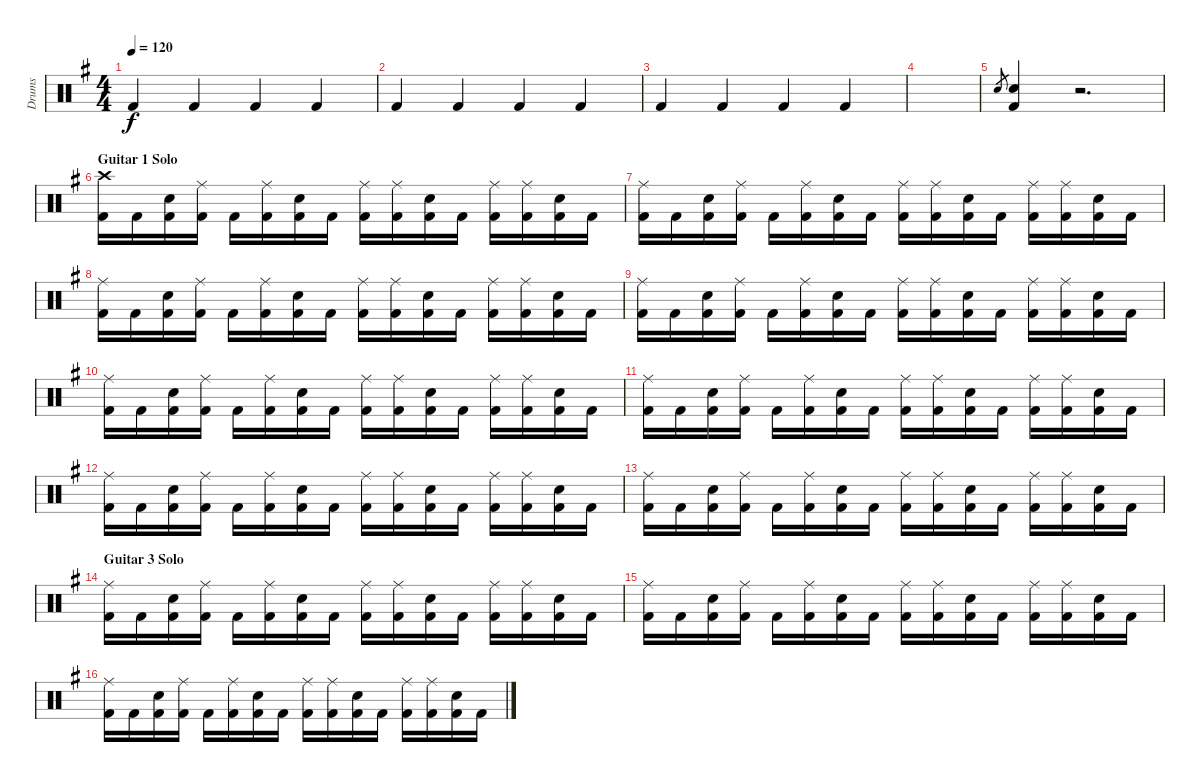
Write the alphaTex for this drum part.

\track ("Drums" "Drums") {instrument percussion}
\staff {score}
\articulation defaults
\ts (4 4)
\tempo 120
\clef neutral
\ks eminor "Kick (hit) 2".4{dy f} "Kick (hit) 2".4 "Kick (hit) 2".4 "Kick (hit) 2".4
|
"Kick (hit) 2".4 "Kick (hit) 2".4 "Kick (hit) 2".4 "Kick (hit) 2".4 |
"Kick (hit) 2".4 "Kick (hit) 2".4 "Kick (hit) 2".4 "Kick (hit) 2".4 |
|
"Snare (hit) 2".8{gr} ("Snare (hit) 2" "Kick (hit) 2").4 r.2{d} |
\section ("" "Guitar 1 Solo")
("Crash high (hit)" "Kick (hit) 2").16 "Kick (hit) 2".16 ("Snare (hit) 2" "Kick (hit) 2").16 ("Ride (middle)" "Kick (hit) 2").16 "Kick (hit) 2".16 ("Ride (middle)" "Kick (hit) 2").16 ("Snare (hit) 2" "Kick (hit) 2").16 "Kick (hit) 2".16 ("Ride (middle)" "Kick (hit) 2").16 ("Ride (middle)" "Kick (hit) 2").16 ("Snare (hit) 2" "Kick (hit) 2").16 "Kick (hit) 2".16 ("Ride (middle)" "Kick (hit) 2").16 ("Ride (middle)" "Kick (hit) 2").16 ("Snare (hit) 2" "Kick (hit) 2").16 "Kick (hit) 2".16 |
("Ride (middle)" "Kick (hit) 2").16 "Kick (hit) 2".16 ("Snare (hit) 2" "Kick (hit) 2").16 ("Ride (middle)" "Kick (hit) 2").16 "Kick (hit) 2".16 ("Ride (middle)" "Kick (hit) 2").16 ("Snare (hit) 2" "Kick (hit) 2").16 "Kick (hit) 2".16 ("Ride (middle)" "Kick (hit) 2").16 ("Ride (middle)" "Kick (hit) 2").16 ("Snare (hit) 2" "Kick (hit) 2").16 "Kick (hit) 2".16 ("Ride (middle)" "Kick (hit) 2").16 ("Ride (middle)" "Kick (hit) 2").16 ("Snare (hit) 2" "Kick (hit) 2").16 "Kick (hit) 2".16 |
("Ride (middle)" "Kick (hit) 2").16 "Kick (hit) 2".16 ("Snare (hit) 2" "Kick (hit) 2").16 ("Ride (middle)" "Kick (hit) 2").16 "Kick (hit) 2".16 ("Ride (middle)" "Kick (hit) 2").16 ("Snare (hit) 2" "Kick (hit) 2").16 "Kick (hit) 2".16 ("Ride (middle)" "Kick (hit) 2").16 ("Ride (middle)" "Kick (hit) 2").16 ("Snare (hit) 2" "Kick (hit) 2").16 "Kick (hit) 2".16 ("Ride (middle)" "Kick (hit) 2").16 ("Ride (middle)" "Kick (hit) 2").16 ("Snare (hit) 2" "Kick (hit) 2").16 "Kick (hit) 2".16 |
("Ride (middle)" "Kick (hit) 2").16 "Kick (hit) 2".16 ("Snare (hit) 2" "Kick (hit) 2").16 ("Ride (middle)" "Kick (hit) 2").16 "Kick (hit) 2".16 ("Ride (middle)" "Kick (hit) 2").16 ("Snare (hit) 2" "Kick (hit) 2").16 "Kick (hit) 2".16 ("Ride (middle)" "Kick (hit) 2").16 ("Ride (middle)" "Kick (hit) 2").16 ("Snare (hit) 2" "Kick (hit) 2").16 "Kick (hit) 2".16 ("Ride (middle)" "Kick (hit) 2").16 ("Ride (middle)" "Kick (hit) 2").16 ("Snare (hit) 2" "Kick (hit) 2").16 "Kick (hit) 2".16 |
("Ride (middle)" "Kick (hit) 2").16 "Kick (hit) 2".16 ("Snare (hit) 2" "Kick (hit) 2").16 ("Ride (middle)" "Kick (hit) 2").16 "Kick (hit) 2".16 ("Ride (middle)" "Kick (hit) 2").16 ("Snare (hit) 2" "Kick (hit) 2").16 "Kick (hit) 2".16 ("Ride (middle)" "Kick (hit) 2").16 ("Ride (middle)" "Kick (hit) 2").16 ("Snare (hit) 2" "Kick (hit) 2").16 "Kick (hit) 2".16 ("Ride (middle)" "Kick (hit) 2").16 ("Ride (middle)" "Kick (hit) 2").16 ("Snare (hit) 2" "Kick (hit) 2").16 "Kick (hit) 2".16 |
("Ride (middle)" "Kick (hit) 2").16 "Kick (hit) 2".16 ("Snare (hit) 2" "Kick (hit) 2").16 ("Ride (middle)" "Kick (hit) 2").16 "Kick (hit) 2".16 ("Ride (middle)" "Kick (hit) 2").16 ("Snare (hit) 2" "Kick (hit) 2").16 "Kick (hit) 2".16 ("Ride (middle)" "Kick (hit) 2").16 ("Ride (middle)" "Kick (hit) 2").16 ("Snare (hit) 2" "Kick (hit) 2").16 "Kick (hit) 2".16 ("Ride (middle)" "Kick (hit) 2").16 ("Ride (middle)" "Kick (hit) 2").16 ("Snare (hit) 2" "Kick (hit) 2").16 "Kick (hit) 2".16 |
("Ride (middle)" "Kick (hit) 2").16 "Kick (hit) 2".16 ("Snare (hit) 2" "Kick (hit) 2").16 ("Ride (middle)" "Kick (hit) 2").16 "Kick (hit) 2".16 ("Ride (middle)" "Kick (hit) 2").16 ("Snare (hit) 2" "Kick (hit) 2").16 "Kick (hit) 2".16 ("Ride (middle)" "Kick (hit) 2").16 ("Ride (middle)" "Kick (hit) 2").16 ("Snare (hit) 2" "Kick (hit) 2").16 "Kick (hit) 2".16 ("Ride (middle)" "Kick (hit) 2").16 ("Ride (middle)" "Kick (hit) 2").16 ("Snare (hit) 2" "Kick (hit) 2").16 "Kick (hit) 2".16 |
("Ride (middle)" "Kick (hit) 2").16 "Kick (hit) 2".16 ("Snare (hit) 2" "Kick (hit) 2").16 ("Ride (middle)" "Kick (hit) 2").16 "Kick (hit) 2".16 ("Ride (middle)" "Kick (hit) 2").16 ("Snare (hit) 2" "Kick (hit) 2").16 "Kick (hit) 2".16 ("Ride (middle)" "Kick (hit) 2").16 ("Ride (middle)" "Kick (hit) 2").16 ("Snare (hit) 2" "Kick (hit) 2").16 "Kick (hit) 2".16 ("Ride (middle)" "Kick (hit) 2").16 ("Ride (middle)" "Kick (hit) 2").16 ("Snare (hit) 2" "Kick (hit) 2").16 "Kick (hit) 2".16 |
\section ("" "Guitar 3 Solo")
("Ride (middle)" "Kick (hit) 2").16 "Kick (hit) 2".16 ("Snare (hit) 2" "Kick (hit) 2").16 ("Ride (middle)" "Kick (hit) 2").16 "Kick (hit) 2".16 ("Ride (middle)" "Kick (hit) 2").16 ("Snare (hit) 2" "Kick (hit) 2").16 "Kick (hit) 2".16 ("Ride (middle)" "Kick (hit) 2").16 ("Ride (middle)" "Kick (hit) 2").16 ("Snare (hit) 2" "Kick (hit) 2").16 "Kick (hit) 2".16 ("Ride (middle)" "Kick (hit) 2").16 ("Ride (middle)" "Kick (hit) 2").16 ("Snare (hit) 2" "Kick (hit) 2").16 "Kick (hit) 2".16 |
("Ride (middle)" "Kick (hit) 2").16 "Kick (hit) 2".16 ("Snare (hit) 2" "Kick (hit) 2").16 ("Ride (middle)" "Kick (hit) 2").16 "Kick (hit) 2".16 ("Ride (middle)" "Kick (hit) 2").16 ("Snare (hit) 2" "Kick (hit) 2").16 "Kick (hit) 2".16 ("Ride (middle)" "Kick (hit) 2").16 ("Ride (middle)" "Kick (hit) 2").16 ("Snare (hit) 2" "Kick (hit) 2").16 "Kick (hit) 2".16 ("Ride (middle)" "Kick (hit) 2").16 ("Ride (middle)" "Kick (hit) 2").16 ("Snare (hit) 2" "Kick (hit) 2").16 "Kick (hit) 2".16 |
("Ride (middle)" "Kick (hit) 2").16 "Kick (hit) 2".16 ("Snare (hit) 2" "Kick (hit) 2").16 ("Ride (middle)" "Kick (hit) 2").16 "Kick (hit) 2".16 ("Ride (middle)" "Kick (hit) 2").16 ("Snare (hit) 2" "Kick (hit) 2").16 "Kick (hit) 2".16 ("Ride (middle)" "Kick (hit) 2").16 ("Ride (middle)" "Kick (hit) 2").16 ("Snare (hit) 2" "Kick (hit) 2").16 "Kick (hit) 2".16 ("Ride (middle)" "Kick (hit) 2").16 ("Ride (middle)" "Kick (hit) 2").16 ("Snare (hit) 2" "Kick (hit) 2").16 "Kick (hit) 2".16
